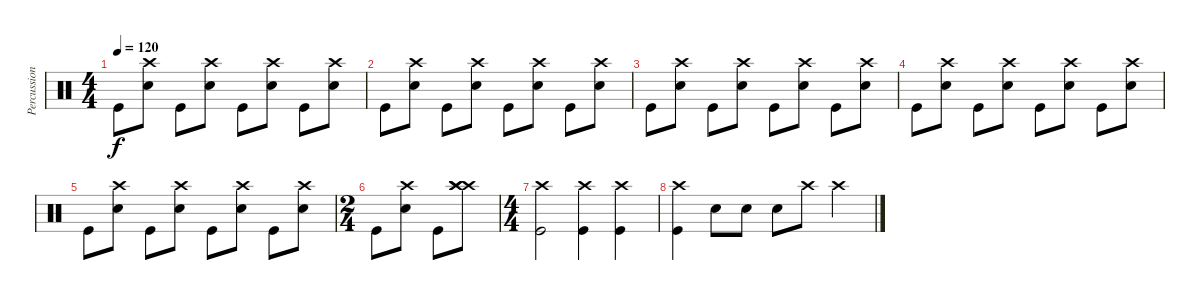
\track ("Percussion" "Percussion") {instrument percussion}
\staff {score}
\articulation defaults
\ts (4 4)
\tempo 120
\clef neutral
\ks c "Kick (hit)".8{dy f}
("Crash high (hit)" "Snare (hit) 2").8 "Kick (hit)".8 ("Crash high (hit)" "Snare (hit) 2").8 "Kick (hit)".8 ("Crash high (hit)" "Snare (hit) 2").8 "Kick (hit)".8 ("Crash high (hit)" "Snare (hit) 2").8 |
"Kick (hit)".8 ("Crash high (hit)" "Snare (hit) 2").8 "Kick (hit)".8 ("Crash high (hit)" "Snare (hit) 2").8 "Kick (hit)".8 ("Crash high (hit)" "Snare (hit) 2").8 "Kick (hit)".8 ("Crash high (hit)" "Snare (hit) 2").8 |
"Kick (hit)".8 ("Crash high (hit)" "Snare (hit) 2").8 "Kick (hit)".8 ("Crash high (hit)" "Snare (hit) 2").8 "Kick (hit)".8 ("Crash high (hit)" "Snare (hit) 2").8 "Kick (hit)".8 ("Crash high (hit)" "Snare (hit) 2").8 |
"Kick (hit)".8 ("Crash high (hit)" "Snare (hit) 2").8 "Kick (hit)".8 ("Crash high (hit)" "Snare (hit) 2").8 "Kick (hit)".8 ("Crash high (hit)" "Snare (hit) 2").8 "Kick (hit)".8 ("Crash high (hit)" "Snare (hit) 2").8 |
"Kick (hit)".8 ("Crash high (hit)" "Snare (hit) 2").8 "Kick (hit)".8 ("Crash high (hit)" "Snare (hit) 2").8 "Kick (hit)".8 ("Crash high (hit)" "Snare (hit) 2").8 "Kick (hit)".8 ("Crash high (hit)" "Snare (hit) 2").8 |
\ts (2 4)
"Kick (hit)".8 ("Crash high (hit)" "Snare (hit) 2").8 "Kick (hit)".8 ("Crash high (hit)" "Crash high (hit)" "Crash high (hit)").8 |
\ts (4 4)
("Crash high (hit)" "Kick (hit)").2 ("Crash high (hit)" "Kick (hit)").4 ("Crash high (hit)" "Kick (hit)").4 |
("Crash high (hit)" "Kick (hit)").4 "Snare (hit) 2".8 "Snare (hit) 2".8 "Snare (hit) 2".8 "Crash high (hit)".8 "Crash high (hit)".4
